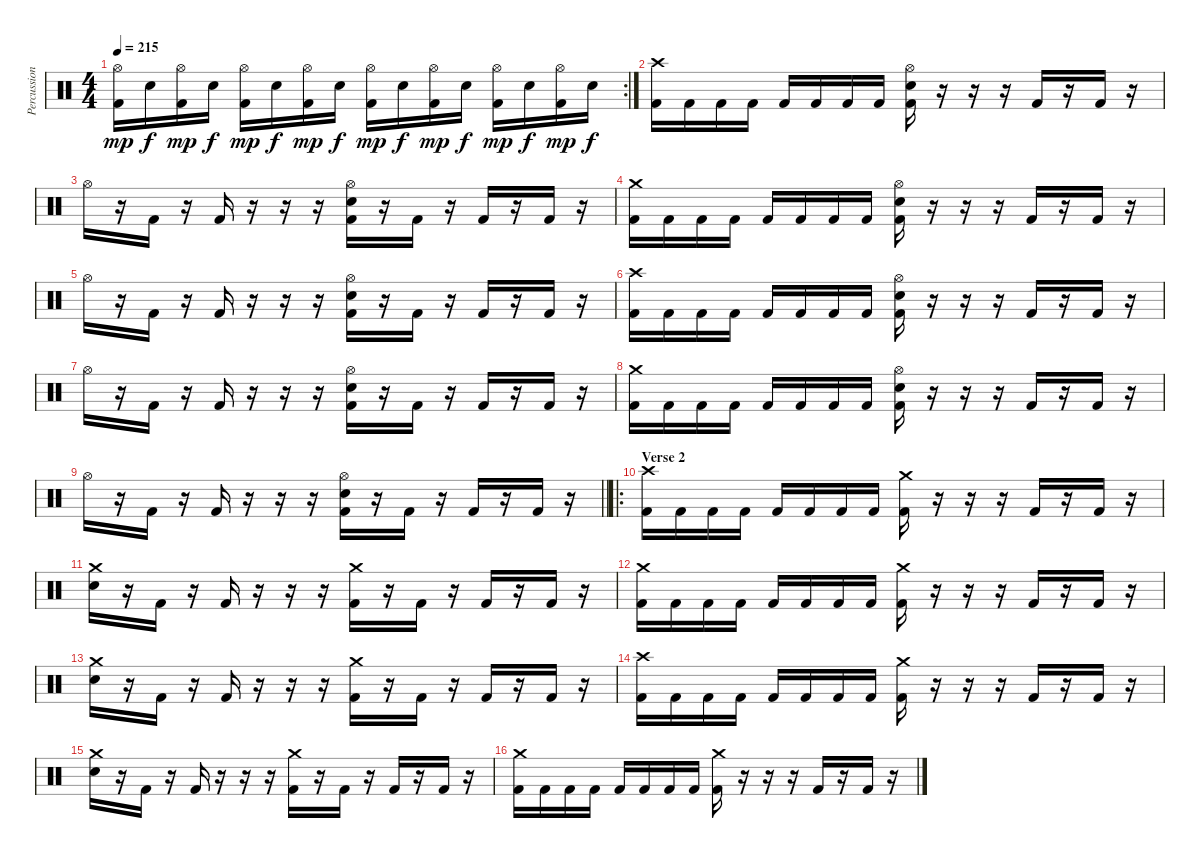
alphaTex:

\track ("Percussion" "Percussion") {instrument percussion}
\staff {score}
\articulation defaults
\rc 2
\ts (4 4)
\tempo 215
\clef neutral
\ks c
("Hi-Hat (open)" "Kick (hit) 2").16{dy mp} "Electric Snare (hit)".16{dy f} ("Hi-Hat (open)" "Kick (hit) 2").16{dy mp} "Electric Snare (hit)".16{dy f} ("Hi-Hat (open)" "Kick (hit) 2").16{dy mp} "Electric Snare (hit)".16{dy f} ("Hi-Hat (open)" "Kick (hit) 2").16{dy mp} "Electric Snare (hit)".16{dy f} ("Hi-Hat (open)" "Kick (hit) 2").16{dy mp} "Electric Snare (hit)".16{dy f} ("Hi-Hat (open)" "Kick (hit) 2").16{dy mp} "Electric Snare (hit)".16{dy f} ("Hi-Hat (open)" "Kick (hit) 2").16{dy mp} "Electric Snare (hit)".16{dy f} ("Hi-Hat (open)" "Kick (hit) 2").16{dy mp} "Electric Snare (hit)".16{dy f} |
("Crash high (hit)" "Kick (hit) 2").16 "Kick (hit) 2".16 "Kick (hit) 2".16 "Kick (hit) 2".16 "Kick (hit) 2".16 "Kick (hit) 2".16 "Kick (hit) 2".16 "Kick (hit) 2".16 ("Hi-Hat (open)" "Electric Snare (hit)" "Kick (hit) 2").16 r.16 r.16 r.16 "Kick (hit) 2".16 r.16 "Kick (hit) 2".16 r.16 |
"Hi-Hat (open)".16 r.16 "Kick (hit) 2".16 r.16 "Kick (hit) 2".16 r.16 r.16 r.16 ("Hi-Hat (open)" "Electric Snare (hit)" "Kick (hit) 2").16 r.16 "Kick (hit) 2".16 r.16 "Kick (hit) 2".16 r.16 "Kick (hit) 2".16 r.16 |
("Crash medium (hit)" "Kick (hit) 2").16 "Kick (hit) 2".16 "Kick (hit) 2".16 "Kick (hit) 2".16 "Kick (hit) 2".16 "Kick (hit) 2".16 "Kick (hit) 2".16 "Kick (hit) 2".16 ("Hi-Hat (open)" "Electric Snare (hit)" "Kick (hit) 2").16 r.16 r.16 r.16 "Kick (hit) 2".16 r.16 "Kick (hit) 2".16 r.16 |
"Hi-Hat (open)".16 r.16 "Kick (hit) 2".16 r.16 "Kick (hit) 2".16 r.16 r.16 r.16 ("Hi-Hat (open)" "Electric Snare (hit)" "Kick (hit) 2").16 r.16 "Kick (hit) 2".16 r.16 "Kick (hit) 2".16 r.16 "Kick (hit) 2".16 r.16 |
("Crash high (hit)" "Kick (hit) 2").16 "Kick (hit) 2".16 "Kick (hit) 2".16 "Kick (hit) 2".16 "Kick (hit) 2".16 "Kick (hit) 2".16 "Kick (hit) 2".16 "Kick (hit) 2".16 ("Hi-Hat (open)" "Electric Snare (hit)" "Kick (hit) 2").16 r.16 r.16 r.16 "Kick (hit) 2".16 r.16 "Kick (hit) 2".16 r.16 |
"Hi-Hat (open)".16 r.16 "Kick (hit) 2".16 r.16 "Kick (hit) 2".16 r.16 r.16 r.16 ("Hi-Hat (open)" "Electric Snare (hit)" "Kick (hit) 2").16 r.16 "Kick (hit) 2".16 r.16 "Kick (hit) 2".16 r.16 "Kick (hit) 2".16 r.16 |
("Crash medium (hit)" "Kick (hit) 2").16 "Kick (hit) 2".16 "Kick (hit) 2".16 "Kick (hit) 2".16 "Kick (hit) 2".16 "Kick (hit) 2".16 "Kick (hit) 2".16 "Kick (hit) 2".16 ("Hi-Hat (open)" "Electric Snare (hit)" "Kick (hit) 2").16 r.16 r.16 r.16 "Kick (hit) 2".16 r.16 "Kick (hit) 2".16 r.16 |
\barLineRight lightlight "Hi-Hat (open)".16
r.16 "Kick (hit) 2".16 r.16 "Kick (hit) 2".16 r.16 r.16 r.16 ("Hi-Hat (open)" "Electric Snare (hit)" "Kick (hit) 2").16 r.16 "Kick (hit) 2".16 r.16 "Kick (hit) 2".16 r.16 "Kick (hit) 2".16 r.16 |
\ro
\section ("" "Verse 2")
("Crash high (hit)" "Kick (hit) 2").16 "Kick (hit) 2".16 "Kick (hit) 2".16 "Kick (hit) 2".16 "Kick (hit) 2".16 "Kick (hit) 2".16 "Kick (hit) 2".16 "Kick (hit) 2".16 ("Crash medium (hit)" "Kick (hit) 2").16 r.16 r.16 r.16 "Kick (hit) 2".16 r.16 "Kick (hit) 2".16 r.16 |
("Crash medium (hit)" "Electric Snare (hit)").16 r.16 "Kick (hit) 2".16 r.16 "Kick (hit) 2".16 r.16 r.16 r.16 ("Crash medium (hit)" "Kick (hit) 2").16 r.16 "Kick (hit) 2".16 r.16 "Kick (hit) 2".16 r.16 "Kick (hit) 2".16 r.16 |
("Crash medium (hit)" "Kick (hit) 2").16 "Kick (hit) 2".16 "Kick (hit) 2".16 "Kick (hit) 2".16 "Kick (hit) 2".16 "Kick (hit) 2".16 "Kick (hit) 2".16 "Kick (hit) 2".16 ("Crash medium (hit)" "Kick (hit) 2").16 r.16 r.16 r.16 "Kick (hit) 2".16 r.16 "Kick (hit) 2".16 r.16 |
("Crash medium (hit)" "Electric Snare (hit)").16 r.16 "Kick (hit) 2".16 r.16 "Kick (hit) 2".16 r.16 r.16 r.16 ("Crash medium (hit)" "Kick (hit) 2").16 r.16 "Kick (hit) 2".16 r.16 "Kick (hit) 2".16 r.16 "Kick (hit) 2".16 r.16 |
("Crash high (hit)" "Kick (hit) 2").16 "Kick (hit) 2".16 "Kick (hit) 2".16 "Kick (hit) 2".16 "Kick (hit) 2".16 "Kick (hit) 2".16 "Kick (hit) 2".16 "Kick (hit) 2".16 ("Crash medium (hit)" "Kick (hit) 2").16 r.16 r.16 r.16 "Kick (hit) 2".16 r.16 "Kick (hit) 2".16 r.16 |
("Crash medium (hit)" "Electric Snare (hit)").16 r.16 "Kick (hit) 2".16 r.16 "Kick (hit) 2".16 r.16 r.16 r.16 ("Crash medium (hit)" "Kick (hit) 2").16 r.16 "Kick (hit) 2".16 r.16 "Kick (hit) 2".16 r.16 "Kick (hit) 2".16 r.16 |
("Crash medium (hit)" "Kick (hit) 2").16 "Kick (hit) 2".16 "Kick (hit) 2".16 "Kick (hit) 2".16 "Kick (hit) 2".16 "Kick (hit) 2".16 "Kick (hit) 2".16 "Kick (hit) 2".16 ("Crash medium (hit)" "Kick (hit) 2").16 r.16 r.16 r.16 "Kick (hit) 2".16 r.16 "Kick (hit) 2".16 r.16
